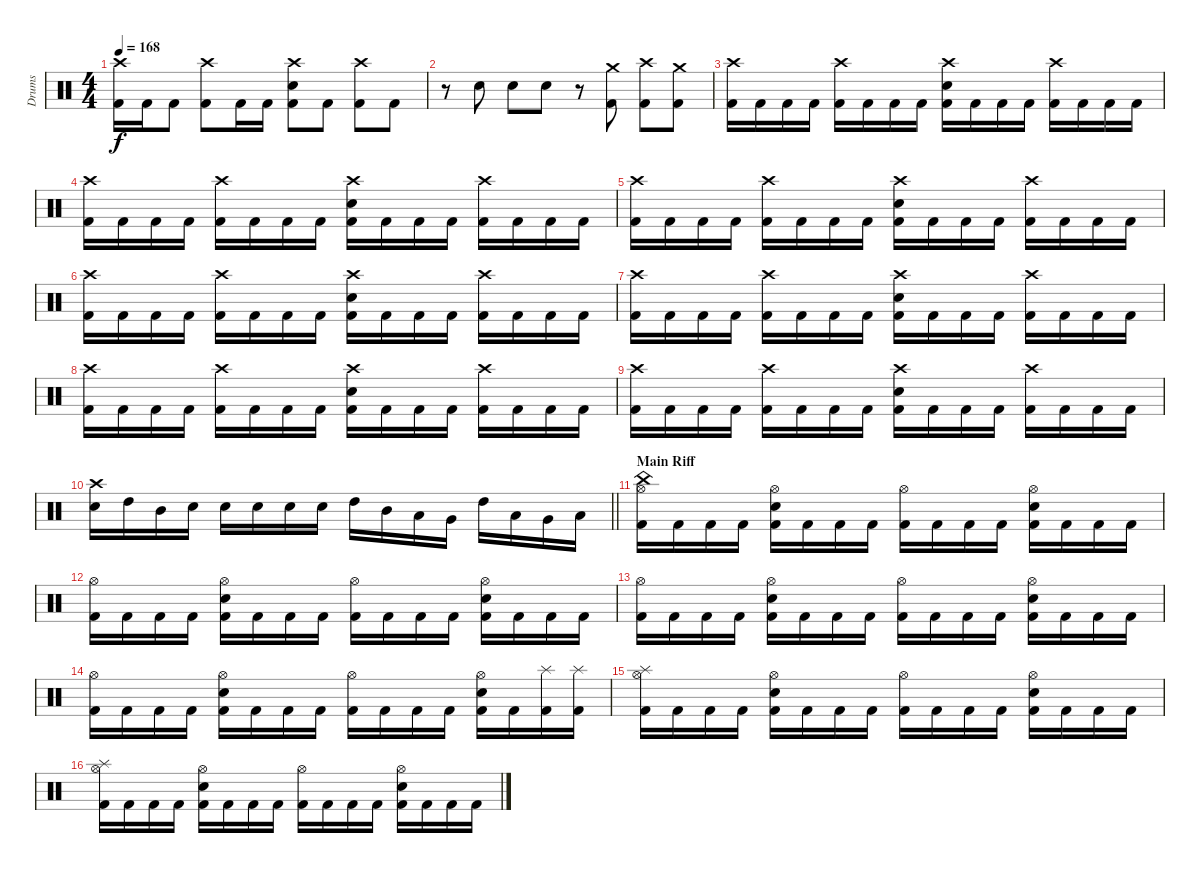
\track ("Drums" "Drums") {instrument percussion}
\staff {score}
\articulation defaults
\ts (4 4)
\tempo 168
\clef neutral
\ks c
("Crash high (hit)" "Kick (hit) 2").16{dy f} "Kick (hit) 2".16 "Kick (hit) 2".8 ("Crash high (hit)" "Kick (hit) 2").8 "Kick (hit) 2".16 "Kick (hit) 2".16 ("Crash high (hit)" "Snare (hit) 2" "Kick (hit) 2").8 "Kick (hit) 2".8 ("Crash high (hit)" "Kick (hit) 2").8 "Kick (hit) 2".8 |
r.8 "Snare (hit) 2".8 "Snare (hit) 2".8 "Snare (hit) 2".8 r.8 ("Crash medium (hit)" "Kick (hit) 2").8 ("Crash high (hit)" "Kick (hit) 2").8 ("Crash medium (hit)" "Kick (hit) 2").8 |
("Crash high (hit)" "Kick (hit) 2").16 "Kick (hit) 2".16 "Kick (hit) 2".16 "Kick (hit) 2".16 ("Crash high (hit)" "Kick (hit) 2").16 "Kick (hit) 2".16 "Kick (hit) 2".16 "Kick (hit) 2".16 ("Crash high (hit)" "Snare (hit) 2" "Kick (hit) 2").16 "Kick (hit) 2".16 "Kick (hit) 2".16 "Kick (hit) 2".16 ("Crash high (hit)" "Kick (hit) 2").16 "Kick (hit) 2".16 "Kick (hit) 2".16 "Kick (hit) 2".16 |
("Crash high (hit)" "Kick (hit) 2").16 "Kick (hit) 2".16 "Kick (hit) 2".16 "Kick (hit) 2".16 ("Crash high (hit)" "Kick (hit) 2").16 "Kick (hit) 2".16 "Kick (hit) 2".16 "Kick (hit) 2".16 ("Crash high (hit)" "Snare (hit) 2" "Kick (hit) 2").16 "Kick (hit) 2".16 "Kick (hit) 2".16 "Kick (hit) 2".16 ("Crash high (hit)" "Kick (hit) 2").16 "Kick (hit) 2".16 "Kick (hit) 2".16 "Kick (hit) 2".16 |
("Crash high (hit)" "Kick (hit) 2").16 "Kick (hit) 2".16 "Kick (hit) 2".16 "Kick (hit) 2".16 ("Crash high (hit)" "Kick (hit) 2").16 "Kick (hit) 2".16 "Kick (hit) 2".16 "Kick (hit) 2".16 ("Crash high (hit)" "Snare (hit) 2" "Kick (hit) 2").16 "Kick (hit) 2".16 "Kick (hit) 2".16 "Kick (hit) 2".16 ("Crash high (hit)" "Kick (hit) 2").16 "Kick (hit) 2".16 "Kick (hit) 2".16 "Kick (hit) 2".16 |
("Crash high (hit)" "Kick (hit) 2").16 "Kick (hit) 2".16 "Kick (hit) 2".16 "Kick (hit) 2".16 ("Crash high (hit)" "Kick (hit) 2").16 "Kick (hit) 2".16 "Kick (hit) 2".16 "Kick (hit) 2".16 ("Crash high (hit)" "Snare (hit) 2" "Kick (hit) 2").16 "Kick (hit) 2".16 "Kick (hit) 2".16 "Kick (hit) 2".16 ("Crash high (hit)" "Kick (hit) 2").16 "Kick (hit) 2".16 "Kick (hit) 2".16 "Kick (hit) 2".16 |
("Crash high (hit)" "Kick (hit) 2").16 "Kick (hit) 2".16 "Kick (hit) 2".16 "Kick (hit) 2".16 ("Crash high (hit)" "Kick (hit) 2").16 "Kick (hit) 2".16 "Kick (hit) 2".16 "Kick (hit) 2".16 ("Crash high (hit)" "Snare (hit) 2" "Kick (hit) 2").16 "Kick (hit) 2".16 "Kick (hit) 2".16 "Kick (hit) 2".16 ("Crash high (hit)" "Kick (hit) 2").16 "Kick (hit) 2".16 "Kick (hit) 2".16 "Kick (hit) 2".16 |
("Crash high (hit)" "Kick (hit) 2").16 "Kick (hit) 2".16 "Kick (hit) 2".16 "Kick (hit) 2".16 ("Crash high (hit)" "Kick (hit) 2").16 "Kick (hit) 2".16 "Kick (hit) 2".16 "Kick (hit) 2".16 ("Crash high (hit)" "Snare (hit) 2" "Kick (hit) 2").16 "Kick (hit) 2".16 "Kick (hit) 2".16 "Kick (hit) 2".16 ("Crash high (hit)" "Kick (hit) 2").16 "Kick (hit) 2".16 "Kick (hit) 2".16 "Kick (hit) 2".16 |
("Crash high (hit)" "Kick (hit) 2").16 "Kick (hit) 2".16 "Kick (hit) 2".16 "Kick (hit) 2".16 ("Crash high (hit)" "Kick (hit) 2").16 "Kick (hit) 2".16 "Kick (hit) 2".16 "Kick (hit) 2".16 ("Crash high (hit)" "Snare (hit) 2" "Kick (hit) 2").16 "Kick (hit) 2".16 "Kick (hit) 2".16 "Kick (hit) 2".16 ("Crash high (hit)" "Kick (hit) 2").16 "Kick (hit) 2".16 "Kick (hit) 2".16 "Kick (hit) 2".16 |
\barLineRight lightlight
("Crash high (hit)" "Snare (hit) 2").16 "High Tom (hit)".16 "Mid Tom (hit)".16 "Snare (hit) 2".16 "Snare (hit) 2".16 "Snare (hit) 2".16 "Snare (hit) 2".16 "Snare (hit) 2".16 "High Tom (hit)".16 "Mid Tom (hit)".16 "Low Tom (hit)".16 "Very Low Tom (hit)".16 "High Tom (hit)".16 "Low Tom (hit)".16 "Very Low Tom (hit)".16 "Low Floor Tom (hit)".16 |
\section ("" "Main Riff")
("Hi-Hat (open)" "China (hit)" "Kick (hit) 2").16 "Kick (hit) 2".16 "Kick (hit) 2".16 "Kick (hit) 2".16 ("Hi-Hat (open)" "Snare (hit) 2" "Kick (hit) 2").16 "Kick (hit) 2".16 "Kick (hit) 2".16 "Kick (hit) 2".16 ("Hi-Hat (open)" "Kick (hit) 2").16 "Kick (hit) 2".16 "Kick (hit) 2".16 "Kick (hit) 2".16 ("Hi-Hat (open)" "Snare (hit) 2" "Kick (hit) 2").16 "Kick (hit) 2".16 "Kick (hit) 2".16 "Kick (hit) 2".16 |
("Hi-Hat (open)" "Kick (hit) 2").16 "Kick (hit) 2".16 "Kick (hit) 2".16 "Kick (hit) 2".16 ("Hi-Hat (open)" "Snare (hit) 2" "Kick (hit) 2").16 "Kick (hit) 2".16 "Kick (hit) 2".16 "Kick (hit) 2".16 ("Hi-Hat (open)" "Kick (hit) 2").16 "Kick (hit) 2".16 "Kick (hit) 2".16 "Kick (hit) 2".16 ("Hi-Hat (open)" "Snare (hit) 2" "Kick (hit) 2").16 "Kick (hit) 2".16 "Kick (hit) 2".16 "Kick (hit) 2".16 |
("Hi-Hat (open)" "Kick (hit) 2").16 "Kick (hit) 2".16 "Kick (hit) 2".16 "Kick (hit) 2".16 ("Hi-Hat (open)" "Snare (hit) 2" "Kick (hit) 2").16 "Kick (hit) 2".16 "Kick (hit) 2".16 "Kick (hit) 2".16 ("Hi-Hat (open)" "Kick (hit) 2").16 "Kick (hit) 2".16 "Kick (hit) 2".16 "Kick (hit) 2".16 ("Hi-Hat (open)" "Snare (hit) 2" "Kick (hit) 2").16 "Kick (hit) 2".16 "Kick (hit) 2".16 "Kick (hit) 2".16 |
("Hi-Hat (open)" "Kick (hit) 2").16 "Kick (hit) 2".16 "Kick (hit) 2".16 "Kick (hit) 2".16 ("Hi-Hat (open)" "Snare (hit) 2" "Kick (hit) 2").16 "Kick (hit) 2".16 "Kick (hit) 2".16 "Kick (hit) 2".16 ("Hi-Hat (open)" "Kick (hit) 2").16 "Kick (hit) 2".16 "Kick (hit) 2".16 "Kick (hit) 2".16 ("Hi-Hat (open)" "Snare (hit) 2" "Kick (hit) 2").16 "Kick (hit) 2".16 ("Splash (hit)" "Kick (hit) 2").16 ("Splash (hit)" "Kick (hit) 2").16 |
("Hi-Hat (open)" "Splash (hit)" "Kick (hit) 2").16 "Kick (hit) 2".16 "Kick (hit) 2".16 "Kick (hit) 2".16 ("Hi-Hat (open)" "Snare (hit) 2" "Kick (hit) 2").16 "Kick (hit) 2".16 "Kick (hit) 2".16 "Kick (hit) 2".16 ("Hi-Hat (open)" "Kick (hit) 2").16 "Kick (hit) 2".16 "Kick (hit) 2".16 "Kick (hit) 2".16 ("Hi-Hat (open)" "Snare (hit) 2" "Kick (hit) 2").16 "Kick (hit) 2".16 "Kick (hit) 2".16 "Kick (hit) 2".16 |
("Hi-Hat (open)" "Splash (hit)" "Kick (hit) 2").16 "Kick (hit) 2".16 "Kick (hit) 2".16 "Kick (hit) 2".16 ("Hi-Hat (open)" "Snare (hit) 2" "Kick (hit) 2").16 "Kick (hit) 2".16 "Kick (hit) 2".16 "Kick (hit) 2".16 ("Hi-Hat (open)" "Kick (hit) 2").16 "Kick (hit) 2".16 "Kick (hit) 2".16 "Kick (hit) 2".16 ("Hi-Hat (open)" "Snare (hit) 2" "Kick (hit) 2").16 "Kick (hit) 2".16 "Kick (hit) 2".16 "Kick (hit) 2".16
